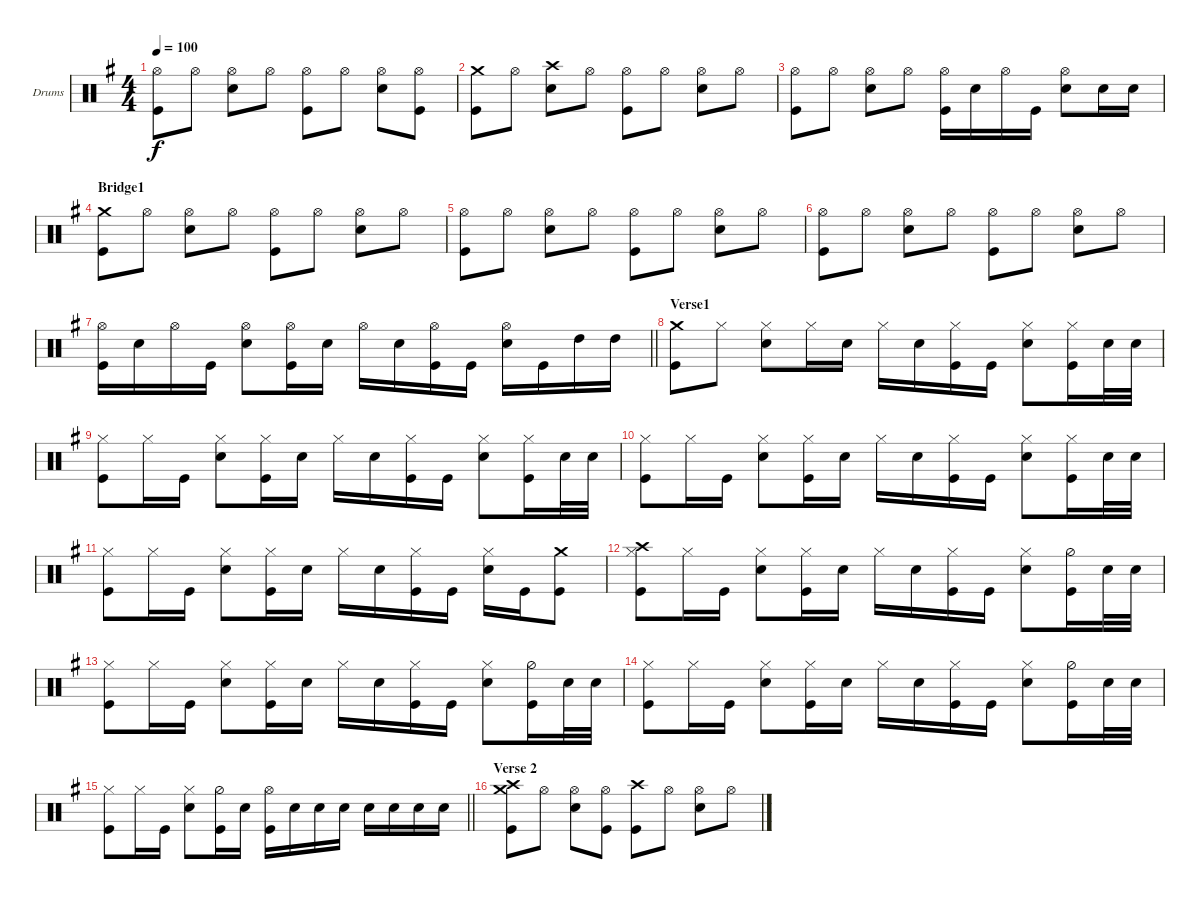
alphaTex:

\bracketExtendMode groupsimilarinstruments
\firstSystemTrackNameOrientation horizontal
\otherSystemsTrackNameOrientation horizontal
\track ("drums (Anton Zulganov)" "Drums") {instrument percussion}
\staff {score}
\articulation defaults
\ts (4 4)
\tempo 100
\clef neutral
\ks eminor
("Hi-Hat (open)" "Kick (hit)").8{dy f} "Hi-Hat (open)".8 ("Hi-Hat (open)" "Snare (hit) 2").8 "Hi-Hat (open)".8 ("Hi-Hat (open)" "Kick (hit)").8 "Hi-Hat (open)".8 ("Hi-Hat (open)" "Snare (hit) 2").8 ("Kick (hit)" "Hi-Hat (open)").8 |
("Kick (hit)" "Crash medium (hit)").8 "Hi-Hat (open)".8 ("Snare (hit) 2" "Crash high (hit)").8 "Hi-Hat (open)".8 ("Hi-Hat (open)" "Kick (hit)").8 "Hi-Hat (open)".8 ("Hi-Hat (open)" "Snare (hit) 2").8 "Hi-Hat (open)".8 |
("Kick (hit)" "Hi-Hat (open)").8 "Hi-Hat (open)".8 ("Hi-Hat (open)" "Snare (hit) 2").8 "Hi-Hat (open)".8 ("Hi-Hat (open)" "Kick (hit)").16 "Snare (hit) 2".16 "Hi-Hat (open)".16 "Kick (hit)".16 ("Hi-Hat (open)" "Snare (hit) 2").8 "Snare (hit) 2".16 "Snare (hit) 2".16 |
\section ("" "Bridge1")
("Crash medium (hit)" "Kick (hit)").8 "Hi-Hat (open)".8 ("Hi-Hat (open)" "Snare (hit) 2").8 "Hi-Hat (open)".8 ("Hi-Hat (open)" "Kick (hit)").8 "Hi-Hat (open)".8 ("Hi-Hat (open)" "Snare (hit) 2").8 "Hi-Hat (open)".8 |
("Hi-Hat (open)" "Kick (hit)").8 "Hi-Hat (open)".8 ("Hi-Hat (open)" "Snare (hit) 2").8 "Hi-Hat (open)".8 ("Hi-Hat (open)" "Kick (hit)").8 "Hi-Hat (open)".8 ("Hi-Hat (open)" "Snare (hit) 2").8 "Hi-Hat (open)".8 |
("Hi-Hat (open)" "Kick (hit)").8 "Hi-Hat (open)".8 ("Hi-Hat (open)" "Snare (hit) 2").8 "Hi-Hat (open)".8 ("Hi-Hat (open)" "Kick (hit)").8 "Hi-Hat (open)".8 ("Hi-Hat (open)" "Snare (hit) 2").8 "Hi-Hat (open)".8 |
\barLineRight lightlight
("Hi-Hat (open)" "Kick (hit)").16 "Snare (hit) 2".16 "Hi-Hat (open)".16 "Kick (hit)".16 ("Hi-Hat (open)" "Snare (hit) 2").8 ("Hi-Hat (open)" "Kick (hit)").16 "Snare (hit) 2".16 "Hi-Hat (open)".16 "Snare (hit) 2".16 ("Hi-Hat (open)" "Kick (hit)").16 "Kick (hit)".16 ("Hi-Hat (open)" "Snare (hit) 2").16 "Kick (hit)".16 "High Tom (hit)".16 "High Tom (hit)".16 |
\section ("" "Verse1")
("Crash medium (hit)" "Kick (hit)").8 "Hi-Hat (closed)".8 ("Hi-Hat (closed)" "Snare (hit) 2").8 "Hi-Hat (closed)".16 "Snare (hit) 2".16 "Hi-Hat (closed)".16 "Snare (hit) 2".16 ("Hi-Hat (closed)" "Kick (hit)").16 "Kick (hit)".16 ("Hi-Hat (closed)" "Snare (hit) 2").8 ("Kick (hit)" "Hi-Hat (closed)").16 "Snare (hit) 2".32 "Snare (hit) 2".32 |
("Kick (hit)" "Hi-Hat (closed)").8 "Hi-Hat (closed)".16 "Kick (hit)".16 ("Hi-Hat (closed)" "Snare (hit) 2").8 ("Hi-Hat (closed)" "Kick (hit)").16 "Snare (hit) 2".16 "Hi-Hat (closed)".16 "Snare (hit) 2".16 ("Hi-Hat (closed)" "Kick (hit)").16 "Kick (hit)".16 ("Hi-Hat (closed)" "Snare (hit) 2").8 ("Hi-Hat (closed)" "Kick (hit)").16 "Snare (hit) 2".32 "Snare (hit) 2".32 |
("Kick (hit)" "Hi-Hat (closed)").8 "Hi-Hat (closed)".16 "Kick (hit)".16 ("Hi-Hat (closed)" "Snare (hit) 2").8 ("Hi-Hat (closed)" "Kick (hit)").16 "Snare (hit) 2".16 "Hi-Hat (closed)".16 "Snare (hit) 2".16 ("Hi-Hat (closed)" "Kick (hit)").16 "Kick (hit)".16 ("Hi-Hat (closed)" "Snare (hit) 2").8 ("Hi-Hat (closed)" "Kick (hit)").16 "Snare (hit) 2".32 "Snare (hit) 2".32 |
("Kick (hit)" "Hi-Hat (closed)").8 "Hi-Hat (closed)".16 "Kick (hit)".16 ("Hi-Hat (closed)" "Snare (hit) 2").8 ("Hi-Hat (closed)" "Kick (hit)").16 "Snare (hit) 2".16 "Hi-Hat (closed)".16 "Snare (hit) 2".16 ("Hi-Hat (closed)" "Kick (hit)").16 "Kick (hit)".16 ("Hi-Hat (closed)" "Snare (hit) 2").16 "Kick (hit)".16 ("Kick (hit)" "Crash medium (hit)").8 |
("Kick (hit)" "Hi-Hat (closed)" "Crash high (hit)").8 "Hi-Hat (closed)".16 "Kick (hit)".16 ("Hi-Hat (closed)" "Snare (hit) 2").8 ("Hi-Hat (closed)" "Kick (hit)").16 "Snare (hit) 2".16 "Hi-Hat (closed)".16 "Snare (hit) 2".16 ("Hi-Hat (closed)" "Kick (hit)").16 "Kick (hit)".16 ("Hi-Hat (closed)" "Snare (hit) 2").8 ("Hi-Hat (half)" "Kick (hit)").16 "Snare (hit) 2".32 "Snare (hit) 2".32 |
("Kick (hit)" "Hi-Hat (closed)").8 "Hi-Hat (closed)".16 "Kick (hit)".16 ("Hi-Hat (closed)" "Snare (hit) 2").8 ("Hi-Hat (closed)" "Kick (hit)").16 "Snare (hit) 2".16 "Hi-Hat (closed)".16 "Snare (hit) 2".16 ("Hi-Hat (closed)" "Kick (hit)").16 "Kick (hit)".16 ("Hi-Hat (closed)" "Snare (hit) 2").8 ("Hi-Hat (half)" "Kick (hit)").16 "Snare (hit) 2".32 "Snare (hit) 2".32 |
("Kick (hit)" "Hi-Hat (closed)").8 "Hi-Hat (closed)".16 "Kick (hit)".16 ("Hi-Hat (closed)" "Snare (hit) 2").8 ("Hi-Hat (closed)" "Kick (hit)").16 "Snare (hit) 2".16 "Hi-Hat (closed)".16 "Snare (hit) 2".16 ("Hi-Hat (closed)" "Kick (hit)").16 "Kick (hit)".16 ("Hi-Hat (closed)" "Snare (hit) 2").8 ("Hi-Hat (half)" "Kick (hit)").16 "Snare (hit) 2".32 "Snare (hit) 2".32 |
\barLineRight lightlight
("Kick (hit)" "Hi-Hat (closed)").8 "Hi-Hat (closed)".16 "Kick (hit)".16 ("Hi-Hat (closed)" "Snare (hit) 2").8 ("Kick (hit)" "Hi-Hat (half)").16 "Snare (hit) 2".16 ("Hi-Hat (open)" "Kick (hit)").16 "Snare (hit) 2".16 "Snare (hit) 2".16 "Snare (hit) 2".16 "Snare (hit) 2".16 "Snare (hit) 2".16 "Snare (hit) 2".16 "Snare (hit) 2".16 |
\section ("" "Verse 2")
("Crash medium (hit)" "Kick (hit)" "Crash high (hit)").8 "Hi-Hat (open)".8 ("Hi-Hat (open)" "Snare (hit) 2").8 ("Hi-Hat (open)" "Kick (hit)").8 ("Kick (hit)" "Crash high (hit)").8 "Hi-Hat (open)".8 ("Hi-Hat (open)" "Snare (hit) 2").8 "Hi-Hat (open)".8
